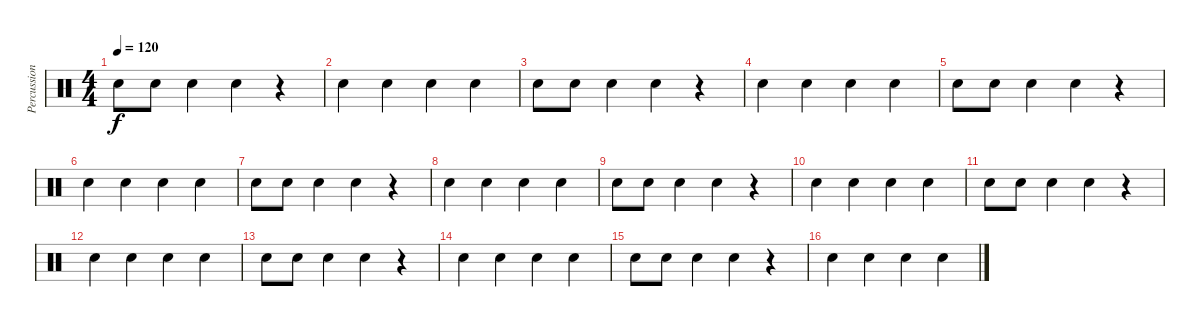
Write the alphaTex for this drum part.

\track ("Percussion" "Percussion") {instrument percussion}
\staff {score}
\articulation defaults
\ts (4 4)
\tempo 120
\clef neutral
\ks c "Electric Snare (hit)".8{dy f} "Electric Snare (hit)".8 "Electric Snare (hit)".4 "Snare (hit) 2".4
r.4 |
"Hand Clap (hit)".4 "Hand Clap (hit)".4 "Hand Clap (hit)".4 "Hand Clap (hit)".4 |
"Electric Snare (hit)".8 "Electric Snare (hit)".8 "Electric Snare (hit)".4 "Snare (hit) 2".4 r.4 |
"Hand Clap (hit)".4 "Hand Clap (hit)".4 "Hand Clap (hit)".4 "Hand Clap (hit)".4 |
"Electric Snare (hit)".8 "Electric Snare (hit)".8 "Electric Snare (hit)".4 "Snare (hit) 2".4 r.4 |
"Hand Clap (hit)".4 "Hand Clap (hit)".4 "Hand Clap (hit)".4 "Hand Clap (hit)".4 |
"Electric Snare (hit)".8 "Electric Snare (hit)".8 "Electric Snare (hit)".4 "Snare (hit) 2".4 r.4 |
"Hand Clap (hit)".4 "Hand Clap (hit)".4 "Hand Clap (hit)".4 "Hand Clap (hit)".4 |
"Electric Snare (hit)".8 "Electric Snare (hit)".8 "Electric Snare (hit)".4 "Snare (hit) 2".4 r.4 |
"Hand Clap (hit)".4 "Hand Clap (hit)".4 "Hand Clap (hit)".4 "Hand Clap (hit)".4 |
"Electric Snare (hit)".8 "Electric Snare (hit)".8 "Electric Snare (hit)".4 "Snare (hit) 2".4 r.4 |
"Hand Clap (hit)".4 "Hand Clap (hit)".4 "Hand Clap (hit)".4 "Hand Clap (hit)".4 |
"Electric Snare (hit)".8 "Electric Snare (hit)".8 "Electric Snare (hit)".4 "Snare (hit) 2".4 r.4 |
"Hand Clap (hit)".4 "Hand Clap (hit)".4 "Hand Clap (hit)".4 "Hand Clap (hit)".4 |
"Electric Snare (hit)".8 "Electric Snare (hit)".8 "Electric Snare (hit)".4 "Snare (hit) 2".4 r.4 |
"Hand Clap (hit)".4 "Hand Clap (hit)".4 "Hand Clap (hit)".4 "Hand Clap (hit)".4
